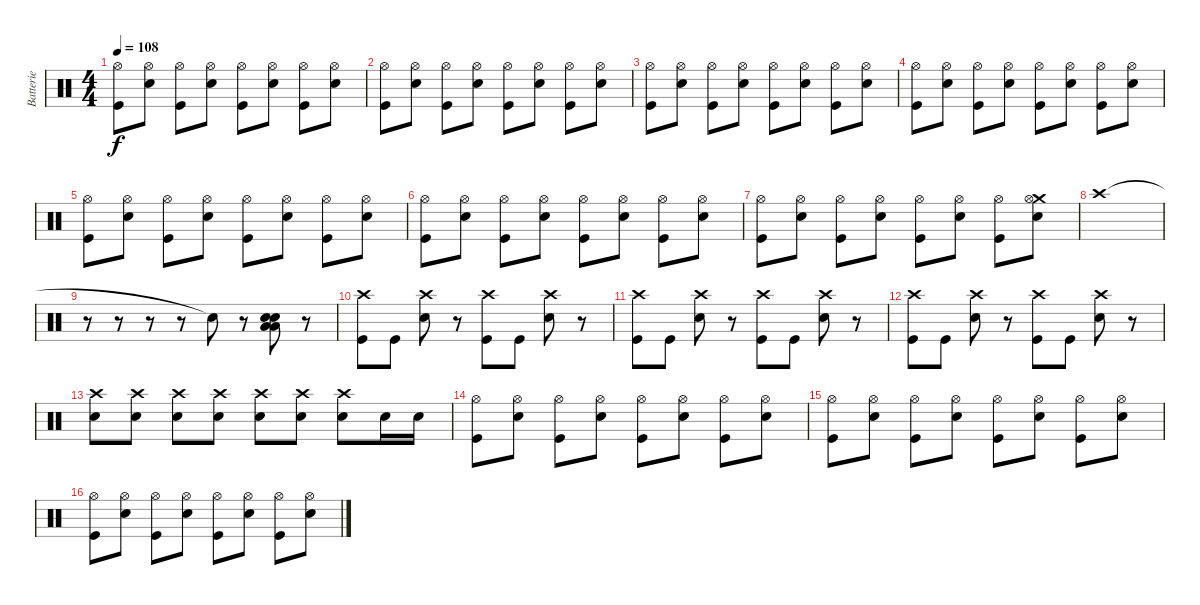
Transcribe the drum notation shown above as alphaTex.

\track ("Batterie" "Batterie") {instrument percussion}
\staff {score}
\articulation defaults
\ts (4 4)
\tempo 108
\clef neutral
\ks c
("Hi-Hat (open)" "Kick (hit)").8{dy f} ("Hi-Hat (open)" "Snare (hit) 2").8 ("Hi-Hat (open)" "Kick (hit)").8 ("Hi-Hat (open)" "Snare (hit) 2").8 ("Hi-Hat (open)" "Kick (hit)").8 ("Hi-Hat (open)" "Snare (hit) 2").8 ("Hi-Hat (open)" "Kick (hit)").8 ("Hi-Hat (open)" "Snare (hit) 2").8 |
("Hi-Hat (open)" "Kick (hit)").8 ("Hi-Hat (open)" "Snare (hit) 2").8 ("Hi-Hat (open)" "Kick (hit)").8 ("Hi-Hat (open)" "Snare (hit) 2").8 ("Hi-Hat (open)" "Kick (hit)").8 ("Hi-Hat (open)" "Snare (hit) 2").8 ("Hi-Hat (open)" "Kick (hit)").8 ("Hi-Hat (open)" "Snare (hit) 2").8 |
("Hi-Hat (open)" "Kick (hit)").8 ("Hi-Hat (open)" "Snare (hit) 2").8 ("Hi-Hat (open)" "Kick (hit)").8 ("Hi-Hat (open)" "Snare (hit) 2").8 ("Hi-Hat (open)" "Kick (hit)").8 ("Hi-Hat (open)" "Snare (hit) 2").8 ("Hi-Hat (open)" "Kick (hit)").8 ("Hi-Hat (open)" "Snare (hit) 2").8 |
("Hi-Hat (open)" "Kick (hit)").8 ("Hi-Hat (open)" "Snare (hit) 2").8 ("Hi-Hat (open)" "Kick (hit)").8 ("Hi-Hat (open)" "Snare (hit) 2").8 ("Hi-Hat (open)" "Kick (hit)").8 ("Hi-Hat (open)" "Snare (hit) 2").8 ("Hi-Hat (open)" "Kick (hit)").8 ("Hi-Hat (open)" "Snare (hit) 2").8 |
("Hi-Hat (open)" "Kick (hit)").8 ("Hi-Hat (open)" "Snare (hit) 2").8 ("Hi-Hat (open)" "Kick (hit)").8 ("Hi-Hat (open)" "Snare (hit) 2").8 ("Hi-Hat (open)" "Kick (hit)").8 ("Hi-Hat (open)" "Snare (hit) 2").8 ("Hi-Hat (open)" "Kick (hit)").8 ("Hi-Hat (open)" "Snare (hit) 2").8 |
("Hi-Hat (open)" "Kick (hit)").8 ("Hi-Hat (open)" "Snare (hit) 2").8 ("Hi-Hat (open)" "Kick (hit)").8 ("Hi-Hat (open)" "Snare (hit) 2").8 ("Hi-Hat (open)" "Kick (hit)").8 ("Hi-Hat (open)" "Snare (hit) 2").8 ("Hi-Hat (open)" "Kick (hit)").8 ("Hi-Hat (open)" "Snare (hit) 2").8 |
("Hi-Hat (open)" "Kick (hit)").8 ("Hi-Hat (open)" "Snare (hit) 2").8 ("Hi-Hat (open)" "Kick (hit)").8 ("Hi-Hat (open)" "Snare (hit) 2").8 ("Hi-Hat (open)" "Kick (hit)").8 ("Hi-Hat (open)" "Snare (hit) 2").8 ("Hi-Hat (open)" "Kick (hit)").8 ("Crash medium (hit)" "Hi-Hat (open)" "Snare (hit) 2").8 |
"Crash high (hit)".1 |
r.8 r.8 r.8 r.8 "Snare (hit)"{t}.8 r.8 ("Low Floor Tom (hit)" "Snare (hit) 2" "Electric Snare (hit)" "Low Tom (hit)").8{volume 16} r.8 |
("Crash high (hit)" "Kick (hit)").8 "Kick (hit)".8 ("Crash high (hit)" "Snare (hit) 2").8 r.8 ("Crash high (hit)" "Kick (hit)").8 "Kick (hit)".8 ("Crash high (hit)" "Snare (hit) 2").8 r.8 |
("Crash high (hit)" "Kick (hit)").8 "Kick (hit)".8 ("Crash high (hit)" "Snare (hit) 2").8 r.8 ("Crash high (hit)" "Kick (hit)").8 "Kick (hit)".8 ("Crash high (hit)" "Snare (hit) 2").8 r.8 |
("Crash high (hit)" "Kick (hit)").8 "Kick (hit)".8 ("Crash high (hit)" "Snare (hit) 2").8 r.8 ("Crash high (hit)" "Kick (hit)").8 "Kick (hit)".8 ("Crash high (hit)" "Snare (hit) 2").8 r.8 |
("Crash high (hit)" "Snare (hit) 2").8 ("Crash high (hit)" "Snare (hit) 2").8 ("Crash high (hit)" "Snare (hit) 2").8 ("Crash high (hit)" "Snare (hit) 2").8 ("Crash high (hit)" "Snare (hit) 2").8 ("Crash high (hit)" "Snare (hit) 2").8 ("Crash high (hit)" "Snare (hit) 2").8 "Snare (hit) 2".16 "Snare (hit) 2".16 |
("Hi-Hat (open)" "Kick (hit)").8 ("Hi-Hat (open)" "Snare (hit) 2").8 ("Hi-Hat (open)" "Kick (hit)").8 ("Hi-Hat (open)" "Snare (hit) 2").8 ("Hi-Hat (open)" "Kick (hit)").8 ("Hi-Hat (open)" "Snare (hit) 2").8 ("Hi-Hat (open)" "Kick (hit)").8 ("Hi-Hat (open)" "Snare (hit) 2").8 |
("Hi-Hat (open)" "Kick (hit)").8 ("Hi-Hat (open)" "Snare (hit) 2").8 ("Hi-Hat (open)" "Kick (hit)").8 ("Hi-Hat (open)" "Snare (hit) 2").8 ("Hi-Hat (open)" "Kick (hit)").8 ("Hi-Hat (open)" "Snare (hit) 2").8 ("Hi-Hat (open)" "Kick (hit)").8 ("Hi-Hat (open)" "Snare (hit) 2").8 |
("Hi-Hat (open)" "Kick (hit)").8 ("Hi-Hat (open)" "Snare (hit) 2").8 ("Hi-Hat (open)" "Kick (hit)").8 ("Hi-Hat (open)" "Snare (hit) 2").8 ("Hi-Hat (open)" "Kick (hit)").8 ("Hi-Hat (open)" "Snare (hit) 2").8 ("Hi-Hat (open)" "Kick (hit)").8 ("Hi-Hat (open)" "Snare (hit) 2").8
